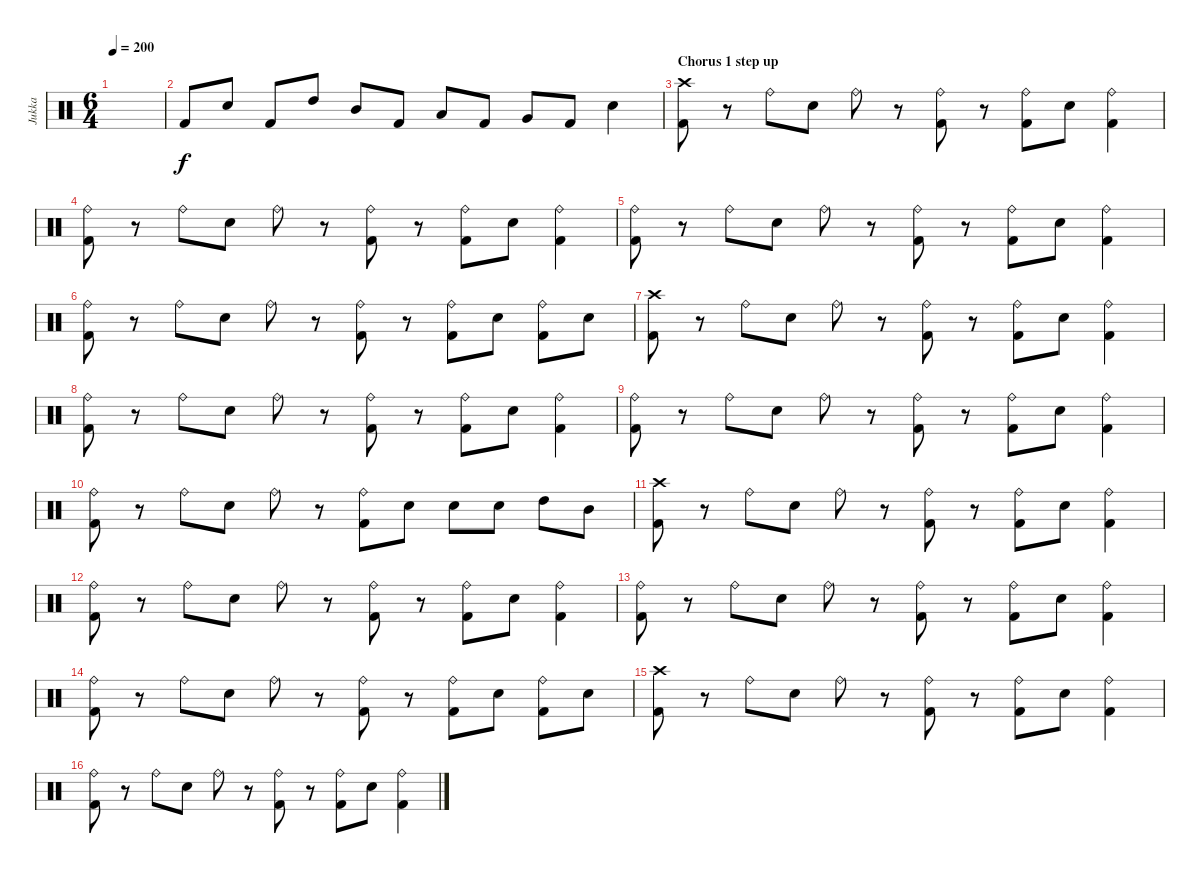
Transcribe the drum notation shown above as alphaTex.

\track ("Jukka" "Jukka") {instrument percussion}
\staff {score}
\articulation defaults
\ts (6 4)
\tempo 200
\clef neutral
\ks c
|
"Kick (hit) 2".8{dy f} "Snare (hit) 2".8 "Kick (hit) 2".8 "High Tom (hit)".8 "Mid Tom (hit)".8 "Kick (hit) 2".8 "Low Tom (hit)".8 "Kick (hit) 2".8 "Very Low Tom (hit)".8 "Kick (hit) 2".8 "Snare (hit) 2".4 |
\section ("" "Chorus 1 step up")
("Crash high (hit)" "Kick (hit) 2").8 r.8 "Ride (bell)".8 "Snare (hit) 2".8 "Ride (bell)".8 r.8 ("Ride (bell)" "Kick (hit) 2").8 r.8 ("Ride (bell)" "Kick (hit) 2").8 "Snare (hit) 2".8 ("Ride (bell)" "Kick (hit) 2").4 |
("Ride (bell)" "Kick (hit) 2").8 r.8 "Ride (bell)".8 "Snare (hit) 2".8 "Ride (bell)".8 r.8 ("Ride (bell)" "Kick (hit) 2").8 r.8 ("Ride (bell)" "Kick (hit) 2").8 "Snare (hit) 2".8 ("Ride (bell)" "Kick (hit) 2").4 |
("Ride (bell)" "Kick (hit) 2").8 r.8 "Ride (bell)".8 "Snare (hit) 2".8 "Ride (bell)".8 r.8 ("Ride (bell)" "Kick (hit) 2").8 r.8 ("Ride (bell)" "Kick (hit) 2").8 "Snare (hit) 2".8 ("Ride (bell)" "Kick (hit) 2").4 |
("Ride (bell)" "Kick (hit) 2").8 r.8 "Ride (bell)".8 "Snare (hit) 2".8 "Ride (bell)".8 r.8 ("Ride (bell)" "Kick (hit) 2").8 r.8 ("Ride (bell)" "Kick (hit) 2").8 "Snare (hit) 2".8 ("Ride (bell)" "Kick (hit) 2").8 "Snare (hit) 2".8 |
("Crash high (hit)" "Kick (hit) 2").8 r.8 "Ride (bell)".8 "Snare (hit) 2".8 "Ride (bell)".8 r.8 ("Ride (bell)" "Kick (hit) 2").8 r.8 ("Ride (bell)" "Kick (hit) 2").8 "Snare (hit) 2".8 ("Ride (bell)" "Kick (hit) 2").4 |
("Ride (bell)" "Kick (hit) 2").8 r.8 "Ride (bell)".8 "Snare (hit) 2".8 "Ride (bell)".8 r.8 ("Ride (bell)" "Kick (hit) 2").8 r.8 ("Ride (bell)" "Kick (hit) 2").8 "Snare (hit) 2".8 ("Ride (bell)" "Kick (hit) 2").4 |
("Ride (bell)" "Kick (hit) 2").8 r.8 "Ride (bell)".8 "Snare (hit) 2".8 "Ride (bell)".8 r.8 ("Ride (bell)" "Kick (hit) 2").8 r.8 ("Ride (bell)" "Kick (hit) 2").8 "Snare (hit) 2".8 ("Ride (bell)" "Kick (hit) 2").4 |
("Ride (bell)" "Kick (hit) 2").8 r.8 "Ride (bell)".8 "Snare (hit) 2".8 "Ride (bell)".8 r.8 ("Ride (bell)" "Kick (hit) 2").8 "Snare (hit) 2".8 "Snare (hit) 2".8 "Snare (hit) 2".8 "High Tom (hit)".8 "Mid Tom (hit)".8 |
("Crash high (hit)" "Kick (hit) 2").8 r.8 "Ride (bell)".8 "Snare (hit) 2".8 "Ride (bell)".8 r.8 ("Ride (bell)" "Kick (hit) 2").8 r.8 ("Ride (bell)" "Kick (hit) 2").8 "Snare (hit) 2".8 ("Ride (bell)" "Kick (hit) 2").4 |
("Ride (bell)" "Kick (hit) 2").8 r.8 "Ride (bell)".8 "Snare (hit) 2".8 "Ride (bell)".8 r.8 ("Ride (bell)" "Kick (hit) 2").8 r.8 ("Ride (bell)" "Kick (hit) 2").8 "Snare (hit) 2".8 ("Ride (bell)" "Kick (hit) 2").4 |
("Ride (bell)" "Kick (hit) 2").8 r.8 "Ride (bell)".8 "Snare (hit) 2".8 "Ride (bell)".8 r.8 ("Ride (bell)" "Kick (hit) 2").8 r.8 ("Ride (bell)" "Kick (hit) 2").8 "Snare (hit) 2".8 ("Ride (bell)" "Kick (hit) 2").4 |
("Ride (bell)" "Kick (hit) 2").8 r.8 "Ride (bell)".8 "Snare (hit) 2".8 "Ride (bell)".8 r.8 ("Ride (bell)" "Kick (hit) 2").8 r.8 ("Ride (bell)" "Kick (hit) 2").8 "Snare (hit) 2".8 ("Ride (bell)" "Kick (hit) 2").8 "Snare (hit) 2".8 |
("Crash high (hit)" "Kick (hit) 2").8 r.8 "Ride (bell)".8 "Snare (hit) 2".8 "Ride (bell)".8 r.8 ("Ride (bell)" "Kick (hit) 2").8 r.8 ("Ride (bell)" "Kick (hit) 2").8 "Snare (hit) 2".8 ("Ride (bell)" "Kick (hit) 2").4 |
("Ride (bell)" "Kick (hit) 2").8 r.8 "Ride (bell)".8 "Snare (hit) 2".8 "Ride (bell)".8 r.8 ("Ride (bell)" "Kick (hit) 2").8 r.8 ("Ride (bell)" "Kick (hit) 2").8 "Snare (hit) 2".8 ("Ride (bell)" "Kick (hit) 2").4
